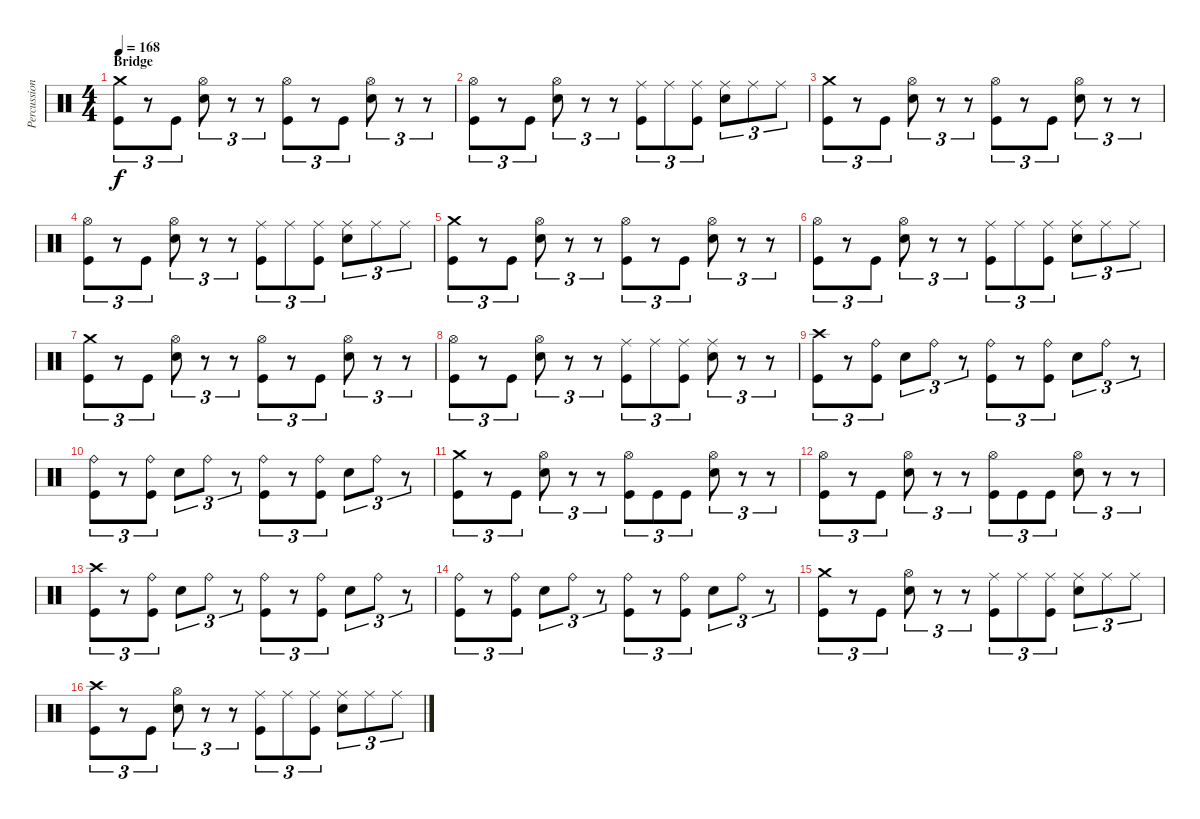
\track ("Percussion" "Percussion") {instrument percussion}
\staff {score}
\articulation defaults
\ts (4 4)
\section ("" "Bridge")
\tempo 168
\clef neutral
\ks c
("Crash medium (hit)" "Kick (hit)").8{tu (3 2) dy f} r.8{tu (3 2)} "Kick (hit)".8{tu (3 2)} ("Hi-Hat (open)" "Electric Snare (hit)").8{tu (3 2)} r.8{tu (3 2)} r.8{tu (3 2)} ("Hi-Hat (open)" "Kick (hit)").8{tu (3 2)} r.8{tu (3 2)} "Kick (hit)".8{tu (3 2)} ("Hi-Hat (open)" "Electric Snare (hit)").8{tu (3 2)} r.8{tu (3 2)} r.8{tu (3 2)} |
("Hi-Hat (open)" "Kick (hit)").8{tu (3 2)} r.8{tu (3 2)} "Kick (hit)".8{tu (3 2)} ("Hi-Hat (open)" "Electric Snare (hit)").8{tu (3 2)} r.8{tu (3 2)} r.8{tu (3 2)} ("Ride (middle)" "Kick (hit)").8{tu (3 2)} "Ride (middle)".8{tu (3 2)} ("Ride (middle)" "Kick (hit)").8{tu (3 2)} ("Ride (middle)" "Electric Snare (hit)").8{tu (3 2)} "Ride (middle)".8{tu (3 2)} "Ride (middle)".8{tu (3 2)} |
("Crash medium (hit)" "Kick (hit)").8{tu (3 2)} r.8{tu (3 2)} "Kick (hit)".8{tu (3 2)} ("Hi-Hat (open)" "Electric Snare (hit)").8{tu (3 2)} r.8{tu (3 2)} r.8{tu (3 2)} ("Hi-Hat (open)" "Kick (hit)").8{tu (3 2)} r.8{tu (3 2)} "Kick (hit)".8{tu (3 2)} ("Hi-Hat (open)" "Electric Snare (hit)").8{tu (3 2)} r.8{tu (3 2)} r.8{tu (3 2)} |
("Hi-Hat (open)" "Kick (hit)").8{tu (3 2)} r.8{tu (3 2)} "Kick (hit)".8{tu (3 2)} ("Hi-Hat (open)" "Electric Snare (hit)").8{tu (3 2)} r.8{tu (3 2)} r.8{tu (3 2)} ("Ride (middle)" "Kick (hit)").8{tu (3 2)} "Ride (middle)".8{tu (3 2)} ("Ride (middle)" "Kick (hit)").8{tu (3 2)} ("Ride (middle)" "Electric Snare (hit)").8{tu (3 2)} "Ride (middle)".8{tu (3 2)} "Ride (middle)".8{tu (3 2)} |
("Crash medium (hit)" "Kick (hit)").8{tu (3 2)} r.8{tu (3 2)} "Kick (hit)".8{tu (3 2)} ("Hi-Hat (open)" "Electric Snare (hit)").8{tu (3 2)} r.8{tu (3 2)} r.8{tu (3 2)} ("Hi-Hat (open)" "Kick (hit)").8{tu (3 2)} r.8{tu (3 2)} "Kick (hit)".8{tu (3 2)} ("Hi-Hat (open)" "Electric Snare (hit)").8{tu (3 2)} r.8{tu (3 2)} r.8{tu (3 2)} |
("Hi-Hat (open)" "Kick (hit)").8{tu (3 2)} r.8{tu (3 2)} "Kick (hit)".8{tu (3 2)} ("Hi-Hat (open)" "Electric Snare (hit)").8{tu (3 2)} r.8{tu (3 2)} r.8{tu (3 2)} ("Ride (middle)" "Kick (hit)").8{tu (3 2)} "Ride (middle)".8{tu (3 2)} ("Ride (middle)" "Kick (hit)").8{tu (3 2)} ("Ride (middle)" "Electric Snare (hit)").8{tu (3 2)} "Ride (middle)".8{tu (3 2)} "Ride (middle)".8{tu (3 2)} |
("Crash medium (hit)" "Kick (hit)").8{tu (3 2)} r.8{tu (3 2)} "Kick (hit)".8{tu (3 2)} ("Hi-Hat (open)" "Electric Snare (hit)").8{tu (3 2)} r.8{tu (3 2)} r.8{tu (3 2)} ("Hi-Hat (open)" "Kick (hit)").8{tu (3 2)} r.8{tu (3 2)} "Kick (hit)".8{tu (3 2)} ("Hi-Hat (open)" "Electric Snare (hit)").8{tu (3 2)} r.8{tu (3 2)} r.8{tu (3 2)} |
("Hi-Hat (open)" "Kick (hit)").8{tu (3 2)} r.8{tu (3 2)} "Kick (hit)".8{tu (3 2)} ("Hi-Hat (open)" "Electric Snare (hit)").8{tu (3 2)} r.8{tu (3 2)} r.8{tu (3 2)} ("Ride (middle)" "Kick (hit)").8{tu (3 2)} "Ride (middle)".8{tu (3 2)} ("Ride (middle)" "Kick (hit)").8{tu (3 2)} ("Ride (middle)" "Electric Snare (hit)").8{tu (3 2)} r.8{tu (3 2)} r.8{tu (3 2)} |
("Crash high (hit)" "Kick (hit)").8{tu (3 2)} r.8{tu (3 2)} ("Ride (bell)" "Kick (hit)").8{tu (3 2)} "Electric Snare (hit)".8{tu (3 2)} "Ride (bell)".8{tu (3 2)} r.8{tu (3 2)} ("Ride (bell)" "Kick (hit)").8{tu (3 2)} r.8{tu (3 2)} ("Ride (bell)" "Kick (hit)").8{tu (3 2)} "Electric Snare (hit)".8{tu (3 2)} "Ride (bell)".8{tu (3 2)} r.8{tu (3 2)} |
("Ride (bell)" "Kick (hit)").8{tu (3 2)} r.8{tu (3 2)} ("Ride (bell)" "Kick (hit)").8{tu (3 2)} "Electric Snare (hit)".8{tu (3 2)} "Ride (bell)".8{tu (3 2)} r.8{tu (3 2)} ("Ride (bell)" "Kick (hit)").8{tu (3 2)} r.8{tu (3 2)} ("Ride (bell)" "Kick (hit)").8{tu (3 2)} "Electric Snare (hit)".8{tu (3 2)} "Ride (bell)".8{tu (3 2)} r.8{tu (3 2)} |
("Crash medium (hit)" "Kick (hit)").8{tu (3 2)} r.8{tu (3 2)} "Kick (hit)".8{tu (3 2)} ("Hi-Hat (open)" "Electric Snare (hit)").8{tu (3 2)} r.8{tu (3 2)} r.8{tu (3 2)} ("Hi-Hat (open)" "Kick (hit)").8{tu (3 2)} "Kick (hit)".8{tu (3 2)} "Kick (hit)".8{tu (3 2)} ("Hi-Hat (open)" "Electric Snare (hit)").8{tu (3 2)} r.8{tu (3 2)} r.8{tu (3 2)} |
("Hi-Hat (open)" "Kick (hit)").8{tu (3 2)} r.8{tu (3 2)} "Kick (hit)".8{tu (3 2)} ("Hi-Hat (open)" "Electric Snare (hit)").8{tu (3 2)} r.8{tu (3 2)} r.8{tu (3 2)} ("Hi-Hat (open)" "Kick (hit)").8{tu (3 2)} "Kick (hit)".8{tu (3 2)} "Kick (hit)".8{tu (3 2)} ("Hi-Hat (open)" "Electric Snare (hit)").8{tu (3 2)} r.8{tu (3 2)} r.8{tu (3 2)} |
("Crash high (hit)" "Kick (hit)").8{tu (3 2)} r.8{tu (3 2)} ("Ride (bell)" "Kick (hit)").8{tu (3 2)} "Electric Snare (hit)".8{tu (3 2)} "Ride (bell)".8{tu (3 2)} r.8{tu (3 2)} ("Ride (bell)" "Kick (hit)").8{tu (3 2)} r.8{tu (3 2)} ("Ride (bell)" "Kick (hit)").8{tu (3 2)} "Electric Snare (hit)".8{tu (3 2)} "Ride (bell)".8{tu (3 2)} r.8{tu (3 2)} |
("Ride (bell)" "Kick (hit)").8{tu (3 2)} r.8{tu (3 2)} ("Ride (bell)" "Kick (hit)").8{tu (3 2)} "Electric Snare (hit)".8{tu (3 2)} "Ride (bell)".8{tu (3 2)} r.8{tu (3 2)} ("Ride (bell)" "Kick (hit)").8{tu (3 2)} r.8{tu (3 2)} ("Ride (bell)" "Kick (hit)").8{tu (3 2)} "Electric Snare (hit)".8{tu (3 2)} "Ride (bell)".8{tu (3 2)} r.8{tu (3 2)} |
("Crash medium (hit)" "Kick (hit)").8{tu (3 2)} r.8{tu (3 2)} "Kick (hit)".8{tu (3 2)} ("Hi-Hat (open)" "Electric Snare (hit)").8{tu (3 2)} r.8{tu (3 2)} r.8{tu (3 2)} ("Ride (middle)" "Kick (hit)").8{tu (3 2)} "Ride (middle)".8{tu (3 2)} ("Ride (middle)" "Kick (hit)").8{tu (3 2)} ("Ride (middle)" "Electric Snare (hit)").8{tu (3 2)} "Ride (middle)".8{tu (3 2)} "Ride (middle)".8{tu (3 2)} |
("Crash high (hit)" "Kick (hit)").8{tu (3 2)} r.8{tu (3 2)} "Kick (hit)".8{tu (3 2)} ("Hi-Hat (open)" "Electric Snare (hit)").8{tu (3 2)} r.8{tu (3 2)} r.8{tu (3 2)} ("Ride (middle)" "Kick (hit)").8{tu (3 2)} "Ride (middle)".8{tu (3 2)} ("Ride (middle)" "Kick (hit)").8{tu (3 2)} ("Ride (middle)" "Electric Snare (hit)").8{tu (3 2)} "Ride (middle)".8{tu (3 2)} "Ride (middle)".8{tu (3 2)}
